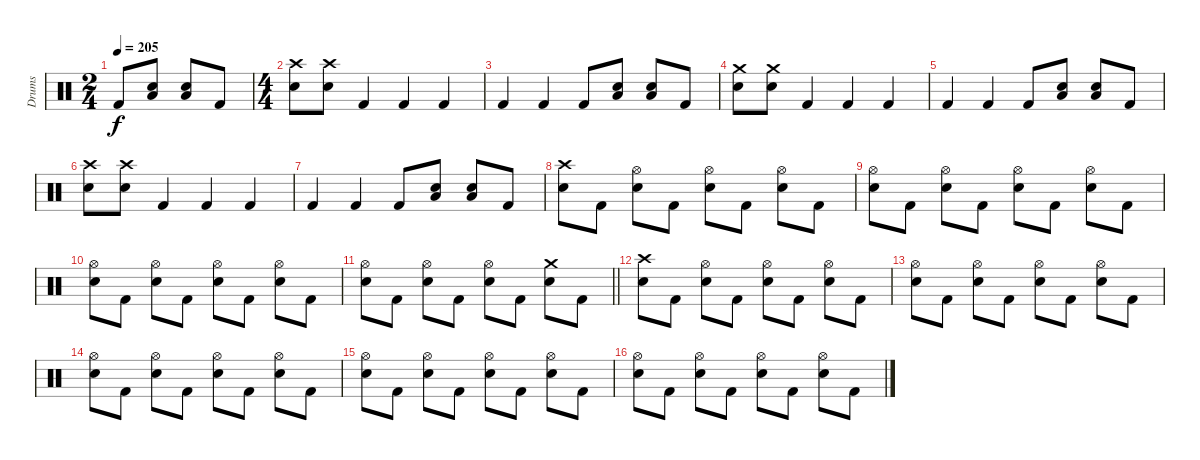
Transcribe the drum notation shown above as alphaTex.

\track ("Drums" "Drums") {instrument percussion}
\staff {score}
\articulation defaults
\ts (2 4)
\tempo 205
\clef neutral
\ks c "Kick (hit) 2".8{dy f}
("Low Tom (hit)" "Electric Snare (hit)").8 ("Low Tom (hit)" "Electric Snare (hit)").8 "Kick (hit) 2".8 |
\ts (4 4)
("Crash high (hit)" "Electric Snare (hit)").8 ("Crash high (hit)" "Electric Snare (hit)").8 "Kick (hit) 2".4 "Kick (hit) 2".4 "Kick (hit) 2".4 |
"Kick (hit) 2".4 "Kick (hit) 2".4 "Kick (hit) 2".8 ("Low Tom (hit)" "Electric Snare (hit)").8 ("Low Tom (hit)" "Electric Snare (hit)").8 "Kick (hit) 2".8 |
("Crash medium (hit)" "Electric Snare (hit)").8 ("Crash medium (hit)" "Electric Snare (hit)").8 "Kick (hit) 2".4 "Kick (hit) 2".4 "Kick (hit) 2".4 |
"Kick (hit) 2".4 "Kick (hit) 2".4 "Kick (hit) 2".8 ("Low Tom (hit)" "Electric Snare (hit)").8 ("Low Tom (hit)" "Electric Snare (hit)").8 "Kick (hit) 2".8 |
("Crash high (hit)" "Electric Snare (hit)").8 ("Crash high (hit)" "Electric Snare (hit)").8 "Kick (hit) 2".4 "Kick (hit) 2".4 "Kick (hit) 2".4 |
"Kick (hit) 2".4 "Kick (hit) 2".4 "Kick (hit) 2".8 ("Low Tom (hit)" "Electric Snare (hit)").8 ("Low Tom (hit)" "Electric Snare (hit)").8 "Kick (hit) 2".8 |
("Crash high (hit)" "Electric Snare (hit)").8 "Kick (hit) 2".8 ("Hi-Hat (open)" "Electric Snare (hit)").8 "Kick (hit) 2".8 ("Hi-Hat (open)" "Electric Snare (hit)").8 "Kick (hit) 2".8 ("Hi-Hat (open)" "Electric Snare (hit)").8 "Kick (hit) 2".8 |
("Hi-Hat (open)" "Electric Snare (hit)").8 "Kick (hit) 2".8 ("Hi-Hat (open)" "Electric Snare (hit)").8 "Kick (hit) 2".8 ("Hi-Hat (open)" "Electric Snare (hit)").8 "Kick (hit) 2".8 ("Hi-Hat (open)" "Electric Snare (hit)").8 "Kick (hit) 2".8 |
("Hi-Hat (open)" "Electric Snare (hit)").8 "Kick (hit) 2".8 ("Hi-Hat (open)" "Electric Snare (hit)").8 "Kick (hit) 2".8 ("Hi-Hat (open)" "Electric Snare (hit)").8 "Kick (hit) 2".8 ("Hi-Hat (open)" "Electric Snare (hit)").8 "Kick (hit) 2".8 |
\barLineRight lightlight
("Hi-Hat (open)" "Electric Snare (hit)").8 "Kick (hit) 2".8 ("Hi-Hat (open)" "Electric Snare (hit)").8 "Kick (hit) 2".8 ("Hi-Hat (open)" "Electric Snare (hit)").8 "Kick (hit) 2".8 ("Crash medium (hit)" "Electric Snare (hit)").8 "Kick (hit) 2".8 |
("Crash high (hit)" "Electric Snare (hit)").8 "Kick (hit) 2".8 ("Hi-Hat (open)" "Electric Snare (hit)").8 "Kick (hit) 2".8 ("Hi-Hat (open)" "Electric Snare (hit)").8 "Kick (hit) 2".8 ("Hi-Hat (open)" "Electric Snare (hit)").8 "Kick (hit) 2".8 |
("Hi-Hat (open)" "Electric Snare (hit)").8 "Kick (hit) 2".8 ("Hi-Hat (open)" "Electric Snare (hit)").8 "Kick (hit) 2".8 ("Hi-Hat (open)" "Electric Snare (hit)").8 "Kick (hit) 2".8 ("Hi-Hat (open)" "Electric Snare (hit)").8 "Kick (hit) 2".8 |
("Hi-Hat (open)" "Electric Snare (hit)").8 "Kick (hit) 2".8 ("Hi-Hat (open)" "Electric Snare (hit)").8 "Kick (hit) 2".8 ("Hi-Hat (open)" "Electric Snare (hit)").8 "Kick (hit) 2".8 ("Hi-Hat (open)" "Electric Snare (hit)").8 "Kick (hit) 2".8 |
("Hi-Hat (open)" "Electric Snare (hit)").8 "Kick (hit) 2".8 ("Hi-Hat (open)" "Electric Snare (hit)").8 "Kick (hit) 2".8 ("Hi-Hat (open)" "Electric Snare (hit)").8 "Kick (hit) 2".8 ("Hi-Hat (open)" "Electric Snare (hit)").8 "Kick (hit) 2".8 |
("Hi-Hat (open)" "Electric Snare (hit)").8 "Kick (hit) 2".8 ("Hi-Hat (open)" "Electric Snare (hit)").8 "Kick (hit) 2".8 ("Hi-Hat (open)" "Electric Snare (hit)").8 "Kick (hit) 2".8 ("Hi-Hat (open)" "Electric Snare (hit)").8 "Kick (hit) 2".8
